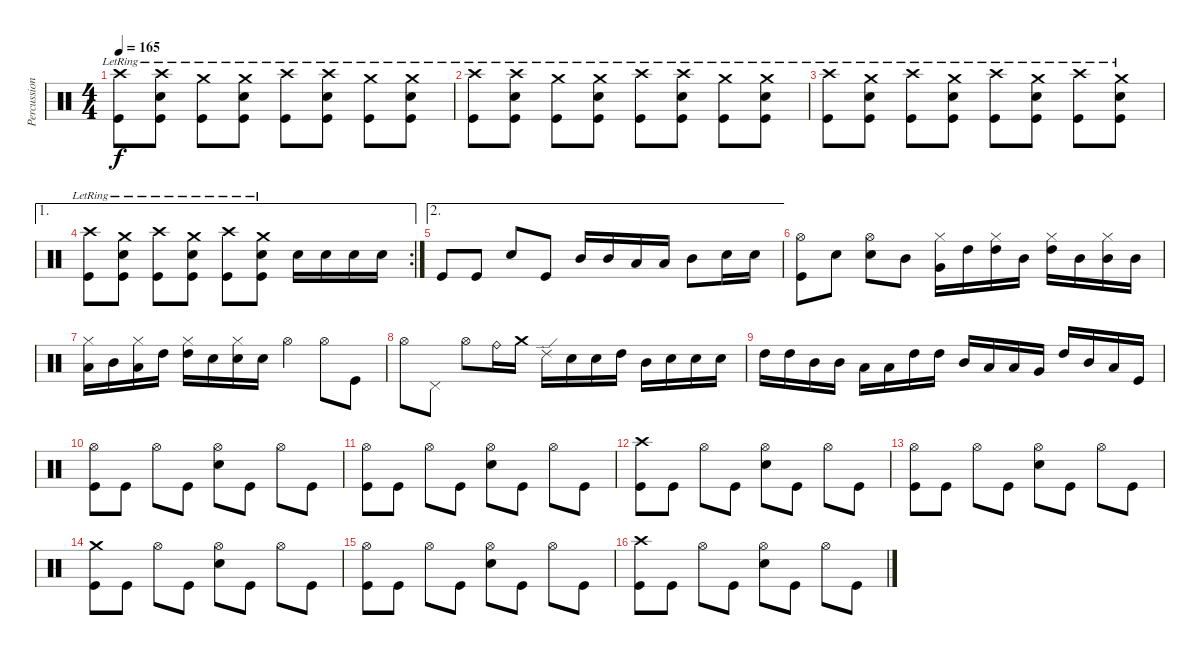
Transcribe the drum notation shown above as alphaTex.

\track ("Percussion" "Percussion") {instrument percussion}
\staff {score}
\articulation defaults
\ts (4 4)
\tempo 165
\clef neutral
\ks c
("Crash high (hit)"{lr} "Kick (hit)").8{dy f} ("Crash high (hit)"{lr} "Electric Snare (hit)" "Kick (hit)").8 ("Crash medium (hit)"{lr} "Kick (hit)").8 ("Crash medium (hit)"{lr} "Electric Snare (hit)" "Kick (hit)").8 ("Crash high (hit)"{lr} "Kick (hit)").8 ("Crash high (hit)"{lr} "Electric Snare (hit)" "Kick (hit)").8 ("Crash medium (hit)"{lr} "Kick (hit)").8 ("Crash medium (hit)"{lr} "Electric Snare (hit)" "Kick (hit)").8 |
("Crash high (hit)"{lr} "Kick (hit)").8 ("Crash high (hit)"{lr} "Electric Snare (hit)" "Kick (hit)").8 ("Crash medium (hit)"{lr} "Kick (hit)").8 ("Crash medium (hit)"{lr} "Electric Snare (hit)" "Kick (hit)").8 ("Crash high (hit)"{lr} "Kick (hit)").8 ("Crash high (hit)"{lr} "Electric Snare (hit)" "Kick (hit)").8 ("Crash medium (hit)"{lr} "Kick (hit)").8 ("Crash medium (hit)"{lr} "Electric Snare (hit)" "Kick (hit)").8 |
("Crash high (hit)"{lr} "Kick (hit)").8 ("Crash medium (hit)"{lr} "Electric Snare (hit)" "Kick (hit)").8 ("Crash high (hit)"{lr} "Kick (hit)").8 ("Crash medium (hit)"{lr} "Electric Snare (hit)" "Kick (hit)").8 ("Crash high (hit)"{lr} "Kick (hit)").8 ("Crash medium (hit)"{lr} "Electric Snare (hit)" "Kick (hit)").8 ("Crash high (hit)"{lr} "Kick (hit)").8 ("Crash medium (hit)"{lr} "Electric Snare (hit)" "Kick (hit)").8 |
\ae 1
\rc 2
("Crash high (hit)"{lr} "Kick (hit)").8 ("Crash medium (hit)"{lr} "Electric Snare (hit)" "Kick (hit)").8 ("Crash high (hit)"{lr} "Kick (hit)").8 ("Crash medium (hit)"{lr} "Electric Snare (hit)" "Kick (hit)").8 ("Crash high (hit)"{lr} "Kick (hit)").8 ("Crash medium (hit)"{lr} "Electric Snare (hit)" "Kick (hit)").8 "Electric Snare (hit)".16 "Electric Snare (hit)".16 "Electric Snare (hit)".16 "Electric Snare (hit)".16 |
\ae 2 "Kick (hit)".8 "Kick (hit)".8 "Electric Snare (hit)".8 "Kick (hit)".8 "Mid Tom (hit)".16 "Mid Tom (hit)".16 "Low Tom (hit)".16 "Low Tom (hit)".16 "Mid Tom (hit)".8 "Electric Snare (hit)".16 "Electric Snare (hit)".16
|
("Hi-Hat (open)" "Kick (hit)").8 "Electric Snare (hit)".8 ("Hi-Hat (open)" "Electric Snare (hit)").8 "Mid Tom (hit)".8 ("Hi-Hat (closed)" "Very Low Tom (hit)").16 "High Tom (hit)".16 ("Hi-Hat (closed)" "High Tom (hit)").16 "Mid Tom (hit)".16 ("Hi-Hat (closed)" "High Tom (hit)").16 "Mid Tom (hit)".16 ("Hi-Hat (closed)" "Mid Tom (hit)").16 "Mid Tom (hit)".16 |
("Hi-Hat (closed)" "Low Tom (hit)").16 "Mid Tom (hit)".16 ("Hi-Hat (closed)" "Low Tom (hit)").16 "High Tom (hit)".16 ("Hi-Hat (closed)" "High Tom (hit)").16 "Electric Snare (hit)".16 ("Hi-Hat (closed)" "Electric Snare (hit)").16 "Electric Snare (hit)".16 "Hi-Hat (open)".4 "Hi-Hat (open)".8 "Kick (hit)".8 |
"Hi-Hat (open)".8 "Pedal Hi-Hat (hit)".8 "Hi-Hat (open)".8 "Ride (bell)".16 "Crash medium (hit)".16 "Ride (edge) 2".16 "Electric Snare (hit)".16 "Electric Snare (hit)".16 "High Tom (hit)".16 "Mid Tom (hit)".16 "Electric Snare (hit)".16 "Electric Snare (hit)".16 "Electric Snare (hit)".16 |
"High Tom (hit)".16 "High Tom (hit)".16 "Mid Tom (hit)".16 "Mid Tom (hit)".16 "Low Tom (hit)".16 "Low Tom (hit)".16 "High Tom (hit)".16 "High Tom (hit)".16 "Mid Tom (hit)".16 "Low Tom (hit)".16 "Low Tom (hit)".16 "Very Low Tom (hit)".16 "High Tom (hit)".16 "Mid Tom (hit)".16 "Low Tom (hit)".16 "Kick (hit)".16 |
("Hi-Hat (open)" "Kick (hit)").8 "Kick (hit)".8 "Hi-Hat (open)".8 "Kick (hit)".8 ("Hi-Hat (open)" "Electric Snare (hit)").8 "Kick (hit)".8 "Hi-Hat (open)".8 "Kick (hit)".8 |
("Hi-Hat (open)" "Kick (hit)").8 "Kick (hit)".8 "Hi-Hat (open)".8 "Kick (hit)".8 ("Hi-Hat (open)" "Electric Snare (hit)").8 "Kick (hit)".8 "Hi-Hat (open)".8 "Kick (hit)".8 |
("Crash high (hit)" "Kick (hit)").8 "Kick (hit)".8 "Hi-Hat (open)".8 "Kick (hit)".8 ("Hi-Hat (open)" "Electric Snare (hit)").8 "Kick (hit)".8 "Hi-Hat (open)".8 "Kick (hit)".8 |
("Hi-Hat (open)" "Kick (hit)").8 "Kick (hit)".8 "Hi-Hat (open)".8 "Kick (hit)".8 ("Hi-Hat (open)" "Electric Snare (hit)").8 "Kick (hit)".8 "Hi-Hat (open)".8 "Kick (hit)".8 |
("Crash medium (hit)" "Kick (hit)").8 "Kick (hit)".8 "Hi-Hat (open)".8 "Kick (hit)".8 ("Hi-Hat (open)" "Electric Snare (hit)").8 "Kick (hit)".8 "Hi-Hat (open)".8 "Kick (hit)".8 |
("Hi-Hat (open)" "Kick (hit)").8 "Kick (hit)".8 "Hi-Hat (open)".8 "Kick (hit)".8 ("Hi-Hat (open)" "Electric Snare (hit)").8 "Kick (hit)".8 "Hi-Hat (open)".8 "Kick (hit)".8 |
("Crash high (hit)" "Kick (hit)").8 "Kick (hit)".8 "Hi-Hat (open)".8 "Kick (hit)".8 ("Hi-Hat (open)" "Electric Snare (hit)").8 "Kick (hit)".8 "Hi-Hat (open)".8 "Kick (hit)".8
